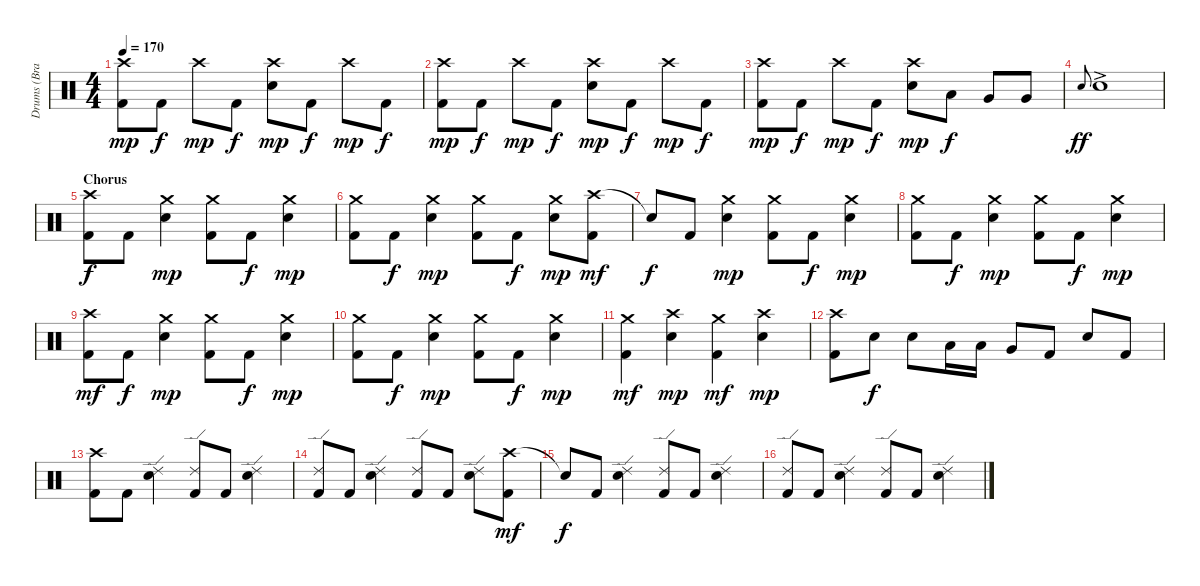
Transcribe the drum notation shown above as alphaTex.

\track ("Drums (Brandon Saller)" "Drums (Bra") {instrument percussion}
\staff {score}
\articulation defaults
\ts (4 4)
\tempo 170
\clef neutral
\ks c
("Crash high (hit)" "Kick (hit) 2").8{dy mp} "Kick (hit) 2".8{dy f} "Crash high (hit)".8{dy mp} "Kick (hit) 2".8{dy f} ("Crash high (hit)" "Electric Snare (hit)").8{dy mp} "Kick (hit) 2".8{dy f} "Crash high (hit)".8{dy mp} "Kick (hit) 2".8{dy f} |
("Crash high (hit)" "Kick (hit) 2").8{dy mp} "Kick (hit) 2".8{dy f} "Crash high (hit)".8{dy mp} "Kick (hit) 2".8{dy f} ("Crash high (hit)" "Electric Snare (hit)").8{dy mp} "Kick (hit) 2".8{dy f} "Crash high (hit)".8{dy mp} "Kick (hit) 2".8{dy f} |
("Crash high (hit)" "Kick (hit) 2").8{dy mp} "Kick (hit) 2".8{dy f} "Crash high (hit)".8{dy mp} "Kick (hit) 2".8{dy f} ("Crash high (hit)" "Electric Snare (hit)").8{dy mp} "Low Tom (hit)".8{dy f} "Very Low Tom (hit)".8 "Very Low Tom (hit)".8 |
"Electric Snare (hit)"{h}.8{gr onbeat dy ff} "Electric Snare (hit)"{ac}.1 |
\section ("" "Chorus")
("Crash high (hit)" "Kick (hit) 2").8{dy f} "Kick (hit) 2".8 ("Crash medium (hit)" "Electric Snare (hit)").4{dy mp} ("Crash medium (hit)" "Kick (hit) 2").8 "Kick (hit) 2".8{dy f} ("Crash medium (hit)" "Electric Snare (hit)").4{dy mp} |
("Crash medium (hit)" "Kick (hit) 2").8 "Kick (hit) 2".8{dy f} ("Crash medium (hit)" "Electric Snare (hit)").4{dy mp} ("Crash medium (hit)" "Kick (hit) 2").8 "Kick (hit) 2".8{dy f} ("Crash medium (hit)" "Electric Snare (hit)").8{dy mp} ("Crash high (hit)" "Kick (hit) 2").8{dy mf} |
"Snare (hit)"{t}.8{dy f} "Kick (hit) 2".8 ("Crash medium (hit)" "Electric Snare (hit)").4{dy mp} ("Crash medium (hit)" "Kick (hit) 2").8 "Kick (hit) 2".8{dy f} ("Crash medium (hit)" "Electric Snare (hit)").4{dy mp} |
("Crash medium (hit)" "Kick (hit) 2").8 "Kick (hit) 2".8{dy f} ("Crash medium (hit)" "Electric Snare (hit)").4{dy mp} ("Crash medium (hit)" "Kick (hit) 2").8 "Kick (hit) 2".8{dy f} ("Crash medium (hit)" "Electric Snare (hit)").4{dy mp} |
("Crash high (hit)" "Kick (hit) 2").8{dy mf} "Kick (hit) 2".8{dy f} ("Crash medium (hit)" "Electric Snare (hit)").4{dy mp} ("Crash medium (hit)" "Kick (hit) 2").8 "Kick (hit) 2".8{dy f} ("Crash medium (hit)" "Electric Snare (hit)").4{dy mp} |
("Crash medium (hit)" "Kick (hit) 2").8 "Kick (hit) 2".8{dy f} ("Crash medium (hit)" "Electric Snare (hit)").4{dy mp} ("Crash medium (hit)" "Kick (hit) 2").8 "Kick (hit) 2".8{dy f} ("Crash medium (hit)" "Electric Snare (hit)").4{dy mp} |
("Crash medium (hit)" "Kick (hit) 2").4{dy mf} ("Crash high (hit)" "Electric Snare (hit)").4{dy mp} ("Crash medium (hit)" "Kick (hit) 2").4{dy mf} ("Crash high (hit)" "Electric Snare (hit)").4{dy mp} |
("Crash high (hit)" "Kick (hit) 2").8 "Electric Snare (hit)".8{dy f} "Electric Snare (hit)".8 "Low Tom (hit)".16 "Low Tom (hit)".16 "Very Low Tom (hit)".8 "Kick (hit) 2".8 "Electric Snare (hit)".8 "Kick (hit) 2".8 |
("Crash high (hit)" "Kick (hit) 2").8 "Kick (hit) 2".8 ("Ride (edge) 2" "Electric Snare (hit)").4 ("Ride (edge) 2" "Kick (hit) 2").8 "Kick (hit) 2".8 ("Ride (edge) 2" "Electric Snare (hit)").4 |
("Ride (edge) 2" "Kick (hit) 2").8 "Kick (hit) 2".8 ("Ride (edge) 2" "Electric Snare (hit)").4 ("Ride (edge) 2" "Kick (hit) 2").8 "Kick (hit) 2".8 ("Ride (edge) 2" "Electric Snare (hit)").8 ("Crash high (hit)" "Kick (hit) 2").8{dy mf} |
"Snare (hit)"{t}.8{dy f} "Kick (hit) 2".8 ("Ride (edge) 2" "Electric Snare (hit)").4 ("Ride (edge) 2" "Kick (hit) 2").8 "Kick (hit) 2".8 ("Ride (edge) 2" "Electric Snare (hit)").4 |
("Ride (edge) 2" "Kick (hit) 2").8 "Kick (hit) 2".8 ("Ride (edge) 2" "Electric Snare (hit)").4 ("Ride (edge) 2" "Kick (hit) 2").8 "Kick (hit) 2".8 ("Ride (edge) 2" "Electric Snare (hit)").4
